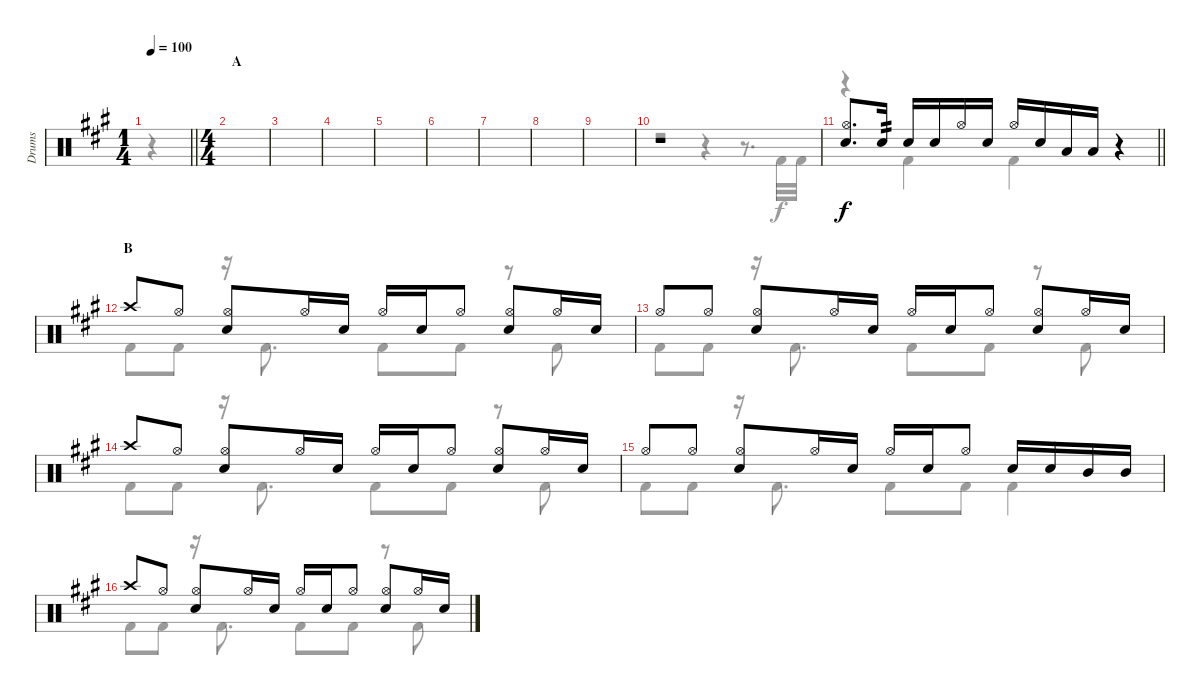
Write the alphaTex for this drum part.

\track ("Drums" "Drums") {instrument percussion}
\staff {score}
\articulation defaults
\voice
\ts (1 4)
\tempo 100
\clef neutral
\barLineRight lightlight
\ks a
|
\ts (4 4)
\section ("" "A")
|
|
|
|
|
|
|
|
r.1 |
\barLineRight lightlight
("Hi-Hat (open)" "Electric Snare (hit)").8{d} "Electric Snare (hit)".16{tp 2} "Electric Snare (hit)".16 "Electric Snare (hit)".16 "Hi-Hat (open)".16 "Electric Snare (hit)".16 "Hi-Hat (open)".16 "Electric Snare (hit)".16 "Low Tom (hit)".16 "Low Tom (hit)".16 r.4 |
\section ("" "B")
"Crash high (hit)".8 "Hi-Hat (open)".8 ("Hi-Hat (open)" "Electric Snare (hit)").8 "Hi-Hat (open)".16 "Electric Snare (hit)".16 "Hi-Hat (open)".16 "Electric Snare (hit)".16 "Hi-Hat (open)".8 ("Hi-Hat (open)" "Electric Snare (hit)").8 "Hi-Hat (open)".16 "Electric Snare (hit)".16 |
"Hi-Hat (open)".8 "Hi-Hat (open)".8 ("Hi-Hat (open)" "Electric Snare (hit)").8 "Hi-Hat (open)".16 "Electric Snare (hit)".16 "Hi-Hat (open)".16 "Electric Snare (hit)".16 "Hi-Hat (open)".8 ("Hi-Hat (open)" "Electric Snare (hit)").8 "Hi-Hat (open)".16 "Electric Snare (hit)".16 |
"Crash high (hit)".8 "Hi-Hat (open)".8 ("Hi-Hat (open)" "Electric Snare (hit)").8 "Hi-Hat (open)".16 "Electric Snare (hit)".16 "Hi-Hat (open)".16 "Electric Snare (hit)".16 "Hi-Hat (open)".8 ("Hi-Hat (open)" "Electric Snare (hit)").8 "Hi-Hat (open)".16 "Electric Snare (hit)".16 |
"Hi-Hat (open)".8 "Hi-Hat (open)".8 ("Hi-Hat (open)" "Electric Snare (hit)").8 "Hi-Hat (open)".16 "Electric Snare (hit)".16 "Hi-Hat (open)".16 "Electric Snare (hit)".16 "Hi-Hat (open)".8 "Electric Snare (hit)".16 "Electric Snare (hit)".16 "Mid Tom (hit)".16 "Mid Tom (hit)".16 |
"Crash high (hit)".8 "Hi-Hat (open)".8 ("Hi-Hat (open)" "Electric Snare (hit)").8 "Hi-Hat (open)".16 "Electric Snare (hit)".16 "Hi-Hat (open)".16 "Electric Snare (hit)".16 "Hi-Hat (open)".8 ("Hi-Hat (open)" "Electric Snare (hit)").8 "Hi-Hat (open)".16 "Electric Snare (hit)".16
\voice
\clef neutral
\ottava regular
\simile none
\barLineRight lightlight
\ks a
r.4{dy f} |
|
|
|
|
|
|
|
|
r.2 r.4 r.8{d} "Kick (hit) 2".32 "Kick (hit) 2".32 |
\barLineRight lightlight
r.4 "Kick (hit) 2".4 "Kick (hit) 2".4 r.4 |
"Kick (hit) 2".8 "Kick (hit) 2".8 r.16 "Kick (hit) 2".8{d} "Kick (hit) 2".8 "Kick (hit) 2".8 r.8 "Kick (hit) 2".8 |
"Kick (hit) 2".8 "Kick (hit) 2".8 r.16 "Kick (hit) 2".8{d} "Kick (hit) 2".8 "Kick (hit) 2".8 r.8 "Kick (hit) 2".8 |
"Kick (hit) 2".8 "Kick (hit) 2".8 r.16 "Kick (hit) 2".8{d} "Kick (hit) 2".8 "Kick (hit) 2".8 r.8 "Kick (hit) 2".8 |
"Kick (hit) 2".8 "Kick (hit) 2".8 r.16 "Kick (hit) 2".8{d} "Kick (hit) 2".8 "Kick (hit) 2".8 "Kick (hit) 2".4 |
"Kick (hit) 2".8 "Kick (hit) 2".8 r.16 "Kick (hit) 2".8{d} "Kick (hit) 2".8 "Kick (hit) 2".8 r.8 "Kick (hit) 2".8
